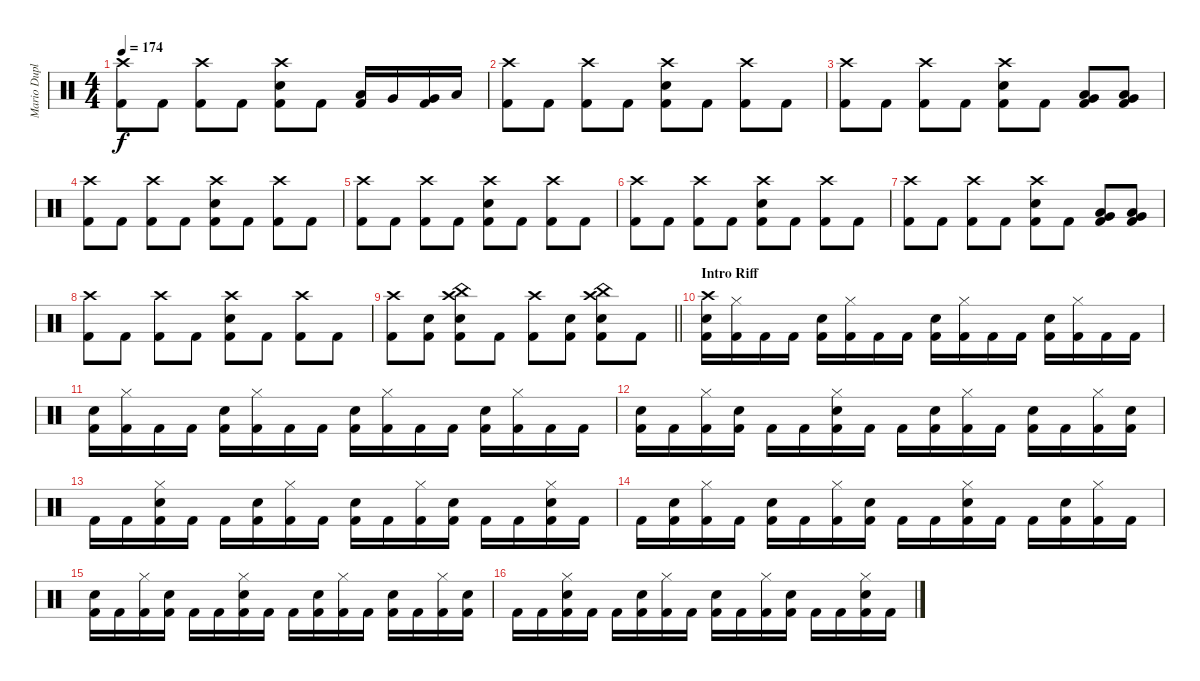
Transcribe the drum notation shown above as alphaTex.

\track ("Mario Duplantier - DRUMS" "Mario Dupl") {instrument percussion}
\staff {score}
\articulation defaults
\ts (4 4)
\tempo 174
\clef neutral
\ks c
("Crash high (hit)" "Kick (hit) 2").8{dy f} "Kick (hit) 2".8 ("Crash high (hit)" "Kick (hit) 2").8 "Kick (hit) 2".8 ("Crash high (hit)" "Electric Snare (hit)" "Kick (hit) 2").8 "Kick (hit) 2".8 ("Low Tom (hit)" "Kick (hit) 2").16 "Very Low Tom (hit)".16 ("Very Low Tom (hit)" "Kick (hit) 2").16 "Low Floor Tom (hit)".16 |
("Crash high (hit)" "Kick (hit) 2").8 "Kick (hit) 2".8 ("Crash high (hit)" "Kick (hit) 2").8 "Kick (hit) 2".8 ("Crash high (hit)" "Electric Snare (hit)" "Kick (hit) 2").8 "Kick (hit) 2".8 ("Crash high (hit)" "Kick (hit) 2").8 "Kick (hit) 2".8 |
("Crash high (hit)" "Kick (hit) 2").8 "Kick (hit) 2".8 ("Crash high (hit)" "Kick (hit) 2").8 "Kick (hit) 2".8 ("Crash high (hit)" "Electric Snare (hit)" "Kick (hit) 2").8 "Kick (hit) 2".8 ("Low Tom (hit)" "Very Low Tom (hit)" "Kick (hit) 2").8 ("Low Floor Tom (hit)" "Very Low Tom (hit)" "Kick (hit) 2").8 |
("Crash high (hit)" "Kick (hit) 2").8 "Kick (hit) 2".8 ("Crash high (hit)" "Kick (hit) 2").8 "Kick (hit) 2".8 ("Crash high (hit)" "Electric Snare (hit)" "Kick (hit) 2").8 "Kick (hit) 2".8 ("Crash high (hit)" "Kick (hit) 2").8 "Kick (hit) 2".8 |
("Crash high (hit)" "Kick (hit) 2").8 "Kick (hit) 2".8 ("Crash high (hit)" "Kick (hit) 2").8 "Kick (hit) 2".8 ("Crash high (hit)" "Electric Snare (hit)" "Kick (hit) 2").8 "Kick (hit) 2".8 ("Crash high (hit)" "Kick (hit) 2").8 "Kick (hit) 2".8 |
("Crash high (hit)" "Kick (hit) 2").8 "Kick (hit) 2".8 ("Crash high (hit)" "Kick (hit) 2").8 "Kick (hit) 2".8 ("Crash high (hit)" "Electric Snare (hit)" "Kick (hit) 2").8 "Kick (hit) 2".8 ("Crash high (hit)" "Kick (hit) 2").8 "Kick (hit) 2".8 |
("Crash high (hit)" "Kick (hit) 2").8 "Kick (hit) 2".8 ("Crash high (hit)" "Kick (hit) 2").8 "Kick (hit) 2".8 ("Crash high (hit)" "Electric Snare (hit)" "Kick (hit) 2").8 "Kick (hit) 2".8 ("Low Tom (hit)" "Very Low Tom (hit)" "Kick (hit) 2").8 ("Low Floor Tom (hit)" "Very Low Tom (hit)" "Kick (hit) 2").8 |
("Crash high (hit)" "Kick (hit) 2").8 "Kick (hit) 2".8 ("Crash high (hit)" "Kick (hit) 2").8 "Kick (hit) 2".8 ("Crash high (hit)" "Electric Snare (hit)" "Kick (hit) 2").8 "Kick (hit) 2".8 ("Crash high (hit)" "Kick (hit) 2").8 "Kick (hit) 2".8 |
\barLineRight lightlight
("Crash high (hit)" "Kick (hit) 2").8 ("Electric Snare (hit)" "Kick (hit) 2").8 ("Crash high (hit)" "China (hit)" "Electric Snare (hit)" "Kick (hit) 2").8 "Kick (hit) 2".8 ("Crash high (hit)" "Kick (hit) 2").8 ("Electric Snare (hit)" "Kick (hit) 2").8 ("China (hit)" "Crash high (hit)" "Electric Snare (hit)" "Kick (hit) 2").8 "Kick (hit) 2".8 |
\section ("" "Intro Riff")
("Crash high (hit)" "Electric Snare (hit)" "Kick (hit) 2").16 ("Hi-Hat (closed)" "Kick (hit) 2").16 "Kick (hit) 2".16 "Kick (hit) 2".16 ("Electric Snare (hit)" "Kick (hit) 2").16 ("Hi-Hat (closed)" "Kick (hit) 2").16 "Kick (hit) 2".16 "Kick (hit) 2".16 ("Electric Snare (hit)" "Kick (hit) 2").16 ("Hi-Hat (closed)" "Kick (hit) 2").16 "Kick (hit) 2".16 "Kick (hit) 2".16 ("Electric Snare (hit)" "Kick (hit) 2").16 ("Hi-Hat (closed)" "Kick (hit) 2").16 "Kick (hit) 2".16 "Kick (hit) 2".16 |
("Electric Snare (hit)" "Kick (hit) 2").16 ("Hi-Hat (closed)" "Kick (hit) 2").16 "Kick (hit) 2".16 "Kick (hit) 2".16 ("Electric Snare (hit)" "Kick (hit) 2").16 ("Hi-Hat (closed)" "Kick (hit) 2").16 "Kick (hit) 2".16 "Kick (hit) 2".16 ("Electric Snare (hit)" "Kick (hit) 2").16 ("Hi-Hat (closed)" "Kick (hit) 2").16 "Kick (hit) 2".16 "Kick (hit) 2".16 ("Electric Snare (hit)" "Kick (hit) 2").16 ("Hi-Hat (closed)" "Kick (hit) 2").16 "Kick (hit) 2".16 "Kick (hit) 2".16 |
("Electric Snare (hit)" "Kick (hit) 2").16 "Kick (hit) 2".16 ("Hi-Hat (closed)" "Kick (hit) 2").16 ("Electric Snare (hit)" "Kick (hit) 2").16 "Kick (hit) 2".16 "Kick (hit) 2".16 ("Hi-Hat (closed)" "Electric Snare (hit)" "Kick (hit) 2").16 "Kick (hit) 2".16 "Kick (hit) 2".16 ("Electric Snare (hit)" "Kick (hit) 2").16 ("Hi-Hat (closed)" "Kick (hit) 2").16 "Kick (hit) 2".16 ("Electric Snare (hit)" "Kick (hit) 2").16 "Kick (hit) 2".16 ("Hi-Hat (closed)" "Kick (hit) 2").16 ("Electric Snare (hit)" "Kick (hit) 2").16 |
"Kick (hit) 2".16 "Kick (hit) 2".16 ("Hi-Hat (closed)" "Electric Snare (hit)" "Kick (hit) 2").16 "Kick (hit) 2".16 "Kick (hit) 2".16 ("Electric Snare (hit)" "Kick (hit) 2").16 ("Hi-Hat (closed)" "Kick (hit) 2").16 "Kick (hit) 2".16 ("Electric Snare (hit)" "Kick (hit) 2").16 "Kick (hit) 2".16 ("Hi-Hat (closed)" "Kick (hit) 2").16 ("Electric Snare (hit)" "Kick (hit) 2").16 "Kick (hit) 2".16 "Kick (hit) 2".16 ("Hi-Hat (closed)" "Electric Snare (hit)" "Kick (hit) 2").16 "Kick (hit) 2".16 |
"Kick (hit) 2".16 ("Electric Snare (hit)" "Kick (hit) 2").16 ("Hi-Hat (closed)" "Kick (hit) 2").16 "Kick (hit) 2".16 ("Electric Snare (hit)" "Kick (hit) 2").16 "Kick (hit) 2".16 ("Hi-Hat (closed)" "Kick (hit) 2").16 ("Electric Snare (hit)" "Kick (hit) 2").16 "Kick (hit) 2".16 "Kick (hit) 2".16 ("Hi-Hat (closed)" "Electric Snare (hit)" "Kick (hit) 2").16 "Kick (hit) 2".16 "Kick (hit) 2".16 ("Electric Snare (hit)" "Kick (hit) 2").16 ("Hi-Hat (closed)" "Kick (hit) 2").16 "Kick (hit) 2".16 |
("Electric Snare (hit)" "Kick (hit) 2").16 "Kick (hit) 2".16 ("Hi-Hat (closed)" "Kick (hit) 2").16 ("Electric Snare (hit)" "Kick (hit) 2").16 "Kick (hit) 2".16 "Kick (hit) 2".16 ("Hi-Hat (closed)" "Electric Snare (hit)" "Kick (hit) 2").16 "Kick (hit) 2".16 "Kick (hit) 2".16 ("Electric Snare (hit)" "Kick (hit) 2").16 ("Hi-Hat (closed)" "Kick (hit) 2").16 "Kick (hit) 2".16 ("Electric Snare (hit)" "Kick (hit) 2").16 "Kick (hit) 2".16 ("Hi-Hat (closed)" "Kick (hit) 2").16 ("Electric Snare (hit)" "Kick (hit) 2").16 |
"Kick (hit) 2".16 "Kick (hit) 2".16 ("Hi-Hat (closed)" "Electric Snare (hit)" "Kick (hit) 2").16 "Kick (hit) 2".16 "Kick (hit) 2".16 ("Electric Snare (hit)" "Kick (hit) 2").16 ("Hi-Hat (closed)" "Kick (hit) 2").16 "Kick (hit) 2".16 ("Electric Snare (hit)" "Kick (hit) 2").16 "Kick (hit) 2".16 ("Hi-Hat (closed)" "Kick (hit) 2").16 ("Electric Snare (hit)" "Kick (hit) 2").16 "Kick (hit) 2".16 "Kick (hit) 2".16 ("Hi-Hat (closed)" "Electric Snare (hit)" "Kick (hit) 2").16 "Kick (hit) 2".16
